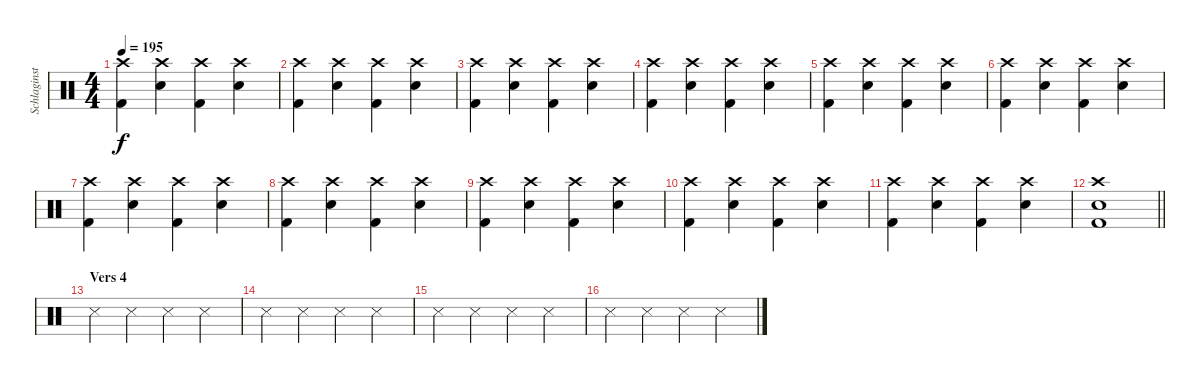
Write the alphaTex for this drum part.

\track ("Schlaginstrumente - Auswahl" "Schlaginst") {instrument percussion}
\staff {score}
\articulation defaults
\ts (4 4)
\tempo 195
\clef neutral
\ks c
("Crash high (hit)" "Kick (hit) 2").4{dy f} ("Crash high (hit)" "Snare (hit) 2").4 ("Crash high (hit)" "Kick (hit) 2").4 ("Crash high (hit)" "Snare (hit) 2").4 |
("Crash high (hit)" "Kick (hit) 2").4 ("Crash high (hit)" "Snare (hit) 2").4 ("Crash high (hit)" "Kick (hit) 2").4 ("Crash high (hit)" "Snare (hit) 2").4 |
("Crash high (hit)" "Kick (hit) 2").4 ("Crash high (hit)" "Snare (hit) 2").4 ("Crash high (hit)" "Kick (hit) 2").4 ("Crash high (hit)" "Snare (hit) 2").4 |
("Crash high (hit)" "Kick (hit) 2").4 ("Crash high (hit)" "Snare (hit) 2").4 ("Crash high (hit)" "Kick (hit) 2").4 ("Crash high (hit)" "Snare (hit) 2").4 |
("Crash high (hit)" "Kick (hit) 2").4 ("Crash high (hit)" "Snare (hit) 2").4 ("Crash high (hit)" "Kick (hit) 2").4 ("Crash high (hit)" "Snare (hit) 2").4 |
("Crash high (hit)" "Kick (hit) 2").4 ("Crash high (hit)" "Snare (hit) 2").4 ("Crash high (hit)" "Kick (hit) 2").4 ("Crash high (hit)" "Snare (hit) 2").4 |
("Crash high (hit)" "Kick (hit) 2").4 ("Crash high (hit)" "Snare (hit) 2").4 ("Crash high (hit)" "Kick (hit) 2").4 ("Crash high (hit)" "Snare (hit) 2").4 |
("Crash high (hit)" "Kick (hit) 2").4 ("Crash high (hit)" "Snare (hit) 2").4 ("Crash high (hit)" "Kick (hit) 2").4 ("Crash high (hit)" "Snare (hit) 2").4 |
("Crash high (hit)" "Kick (hit) 2").4 ("Crash high (hit)" "Snare (hit) 2").4 ("Crash high (hit)" "Kick (hit) 2").4 ("Crash high (hit)" "Snare (hit) 2").4 |
("Crash high (hit)" "Kick (hit) 2").4 ("Crash high (hit)" "Snare (hit) 2").4 ("Crash high (hit)" "Kick (hit) 2").4 ("Crash high (hit)" "Snare (hit) 2").4 |
("Crash high (hit)" "Kick (hit) 2").4 ("Crash high (hit)" "Snare (hit) 2").4 ("Crash high (hit)" "Kick (hit) 2").4 ("Crash high (hit)" "Snare (hit) 2").4 |
\barLineRight lightlight
("Crash high (hit)" "Kick (hit) 2" "Snare (hit) 2").1 |
\section ("" "Vers 4")
"Snare (side stick) 3".4 "Snare (side stick) 3".4 "Snare (side stick) 3".4 "Snare (side stick) 3".4 |
"Snare (side stick) 3".4 "Snare (side stick) 3".4 "Snare (side stick) 3".4 "Snare (side stick) 3".4 |
"Snare (side stick) 3".4 "Snare (side stick) 3".4 "Snare (side stick) 3".4 "Snare (side stick) 3".4 |
"Snare (side stick) 3".4 "Snare (side stick) 3".4 "Snare (side stick) 3".4 "Snare (side stick) 3".4
